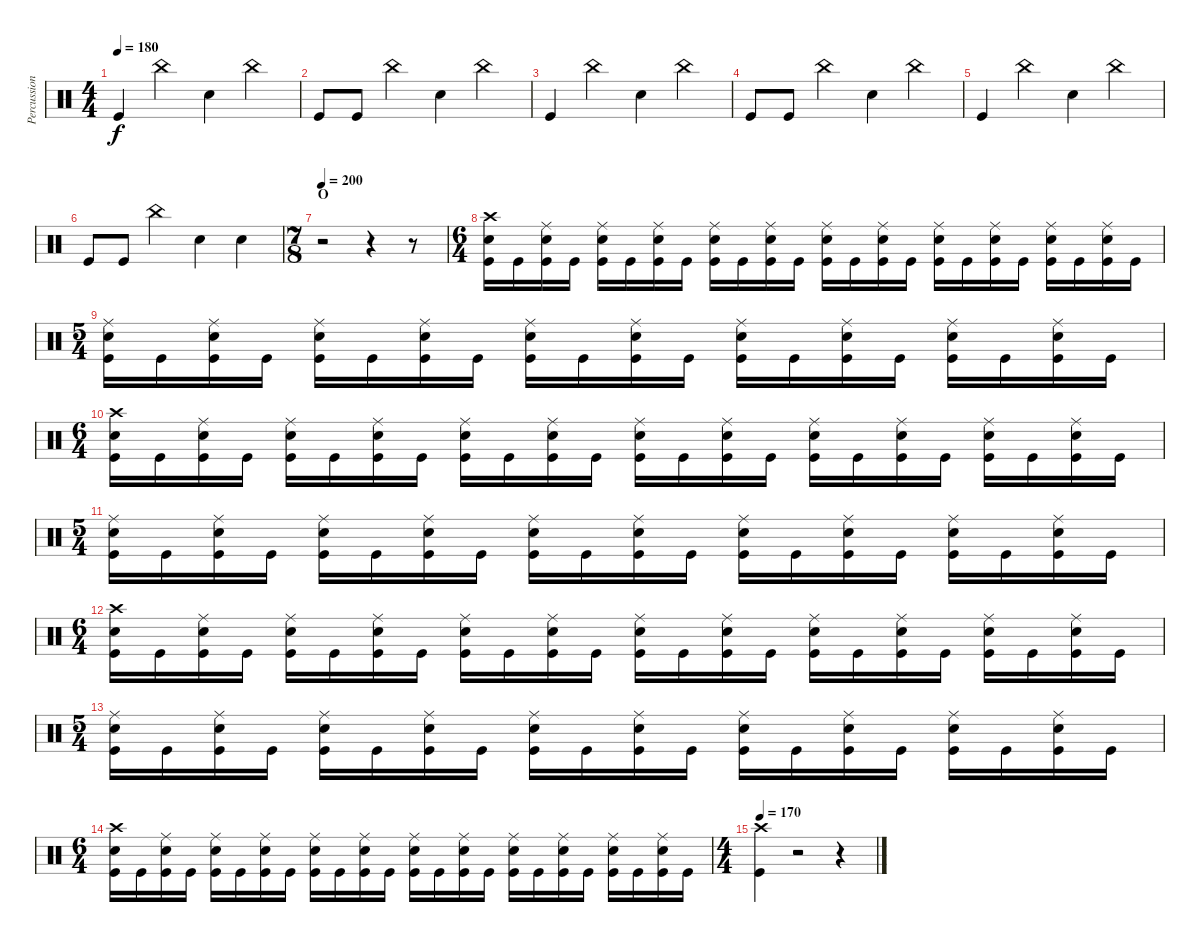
\track ("Percussion" "Percussion") {instrument percussion}
\staff {score}
\articulation defaults
\ts (4 4)
\tempo 180
\clef neutral
\ks c "Kick (hit)".4{dy f} "China (hit)".4 "Electric Snare (hit)".4 "China (hit)".4
|
"Kick (hit)".8 "Kick (hit)".8 "China (hit)".4 "Electric Snare (hit)".4 "China (hit)".4 |
"Kick (hit)".4 "China (hit)".4 "Electric Snare (hit)".4 "China (hit)".4 |
"Kick (hit)".8 "Kick (hit)".8 "China (hit)".4 "Electric Snare (hit)".4 "China (hit)".4 |
"Kick (hit)".4 "China (hit)".4 "Electric Snare (hit)".4 "China (hit)".4 |
"Kick (hit)".8 "Kick (hit)".8 "China (hit)".4 "Electric Snare (hit)".4 "Electric Snare (hit)".4 |
\ts (7 8)
\section ("" "O")
\tempo 200
r.2 r.4 r.8 |
\ts (6 4)
("Crash high (hit)" "Electric Snare (hit)" "Kick (hit)").16 "Kick (hit)".16 ("Ride (middle)" "Electric Snare (hit)" "Kick (hit)").16 "Kick (hit)".16 ("Ride (middle)" "Electric Snare (hit)" "Kick (hit)").16 "Kick (hit)".16 ("Ride (middle)" "Electric Snare (hit)" "Kick (hit)").16 "Kick (hit)".16 ("Ride (middle)" "Electric Snare (hit)" "Kick (hit)").16 "Kick (hit)".16 ("Ride (middle)" "Electric Snare (hit)" "Kick (hit)").16 "Kick (hit)".16 ("Ride (middle)" "Electric Snare (hit)" "Kick (hit)").16 "Kick (hit)".16 ("Ride (middle)" "Electric Snare (hit)" "Kick (hit)").16 "Kick (hit)".16 ("Ride (middle)" "Electric Snare (hit)" "Kick (hit)").16 "Kick (hit)".16 ("Ride (middle)" "Electric Snare (hit)" "Kick (hit)").16 "Kick (hit)".16 ("Ride (middle)" "Electric Snare (hit)" "Kick (hit)").16 "Kick (hit)".16 ("Ride (middle)" "Electric Snare (hit)" "Kick (hit)").16 "Kick (hit)".16 |
\ts (5 4)
("Ride (middle)" "Electric Snare (hit)" "Kick (hit)").16 "Kick (hit)".16 ("Ride (middle)" "Electric Snare (hit)" "Kick (hit)").16 "Kick (hit)".16 ("Ride (middle)" "Electric Snare (hit)" "Kick (hit)").16 "Kick (hit)".16 ("Ride (middle)" "Electric Snare (hit)" "Kick (hit)").16 "Kick (hit)".16 ("Ride (middle)" "Electric Snare (hit)" "Kick (hit)").16 "Kick (hit)".16 ("Ride (middle)" "Electric Snare (hit)" "Kick (hit)").16 "Kick (hit)".16 ("Ride (middle)" "Electric Snare (hit)" "Kick (hit)").16 "Kick (hit)".16 ("Ride (middle)" "Electric Snare (hit)" "Kick (hit)").16 "Kick (hit)".16 ("Ride (middle)" "Electric Snare (hit)" "Kick (hit)").16 "Kick (hit)".16 ("Ride (middle)" "Electric Snare (hit)" "Kick (hit)").16 "Kick (hit)".16 |
\ts (6 4)
("Crash high (hit)" "Electric Snare (hit)" "Kick (hit)").16 "Kick (hit)".16 ("Ride (middle)" "Electric Snare (hit)" "Kick (hit)").16 "Kick (hit)".16 ("Ride (middle)" "Electric Snare (hit)" "Kick (hit)").16 "Kick (hit)".16 ("Ride (middle)" "Electric Snare (hit)" "Kick (hit)").16 "Kick (hit)".16 ("Ride (middle)" "Electric Snare (hit)" "Kick (hit)").16 "Kick (hit)".16 ("Ride (middle)" "Electric Snare (hit)" "Kick (hit)").16 "Kick (hit)".16 ("Ride (middle)" "Electric Snare (hit)" "Kick (hit)").16 "Kick (hit)".16 ("Ride (middle)" "Electric Snare (hit)" "Kick (hit)").16 "Kick (hit)".16 ("Ride (middle)" "Electric Snare (hit)" "Kick (hit)").16 "Kick (hit)".16 ("Ride (middle)" "Electric Snare (hit)" "Kick (hit)").16 "Kick (hit)".16 ("Ride (middle)" "Electric Snare (hit)" "Kick (hit)").16 "Kick (hit)".16 ("Ride (middle)" "Electric Snare (hit)" "Kick (hit)").16 "Kick (hit)".16 |
\ts (5 4)
("Ride (middle)" "Electric Snare (hit)" "Kick (hit)").16 "Kick (hit)".16 ("Ride (middle)" "Electric Snare (hit)" "Kick (hit)").16 "Kick (hit)".16 ("Ride (middle)" "Electric Snare (hit)" "Kick (hit)").16 "Kick (hit)".16 ("Ride (middle)" "Electric Snare (hit)" "Kick (hit)").16 "Kick (hit)".16 ("Ride (middle)" "Electric Snare (hit)" "Kick (hit)").16 "Kick (hit)".16 ("Ride (middle)" "Electric Snare (hit)" "Kick (hit)").16 "Kick (hit)".16 ("Ride (middle)" "Electric Snare (hit)" "Kick (hit)").16 "Kick (hit)".16 ("Ride (middle)" "Electric Snare (hit)" "Kick (hit)").16 "Kick (hit)".16 ("Ride (middle)" "Electric Snare (hit)" "Kick (hit)").16 "Kick (hit)".16 ("Ride (middle)" "Electric Snare (hit)" "Kick (hit)").16 "Kick (hit)".16 |
\ts (6 4)
("Crash high (hit)" "Electric Snare (hit)" "Kick (hit)").16 "Kick (hit)".16 ("Ride (middle)" "Electric Snare (hit)" "Kick (hit)").16 "Kick (hit)".16 ("Ride (middle)" "Electric Snare (hit)" "Kick (hit)").16 "Kick (hit)".16 ("Ride (middle)" "Electric Snare (hit)" "Kick (hit)").16 "Kick (hit)".16 ("Ride (middle)" "Electric Snare (hit)" "Kick (hit)").16 "Kick (hit)".16 ("Ride (middle)" "Electric Snare (hit)" "Kick (hit)").16 "Kick (hit)".16 ("Ride (middle)" "Electric Snare (hit)" "Kick (hit)").16 "Kick (hit)".16 ("Ride (middle)" "Electric Snare (hit)" "Kick (hit)").16 "Kick (hit)".16 ("Ride (middle)" "Electric Snare (hit)" "Kick (hit)").16 "Kick (hit)".16 ("Ride (middle)" "Electric Snare (hit)" "Kick (hit)").16 "Kick (hit)".16 ("Ride (middle)" "Electric Snare (hit)" "Kick (hit)").16 "Kick (hit)".16 ("Ride (middle)" "Electric Snare (hit)" "Kick (hit)").16 "Kick (hit)".16 |
\ts (5 4)
("Ride (middle)" "Electric Snare (hit)" "Kick (hit)").16 "Kick (hit)".16 ("Ride (middle)" "Electric Snare (hit)" "Kick (hit)").16 "Kick (hit)".16 ("Ride (middle)" "Electric Snare (hit)" "Kick (hit)").16 "Kick (hit)".16 ("Ride (middle)" "Electric Snare (hit)" "Kick (hit)").16 "Kick (hit)".16 ("Ride (middle)" "Electric Snare (hit)" "Kick (hit)").16 "Kick (hit)".16 ("Ride (middle)" "Electric Snare (hit)" "Kick (hit)").16 "Kick (hit)".16 ("Ride (middle)" "Electric Snare (hit)" "Kick (hit)").16 "Kick (hit)".16 ("Ride (middle)" "Electric Snare (hit)" "Kick (hit)").16 "Kick (hit)".16 ("Ride (middle)" "Electric Snare (hit)" "Kick (hit)").16 "Kick (hit)".16 ("Ride (middle)" "Electric Snare (hit)" "Kick (hit)").16 "Kick (hit)".16 |
\ts (6 4)
("Crash high (hit)" "Electric Snare (hit)" "Kick (hit)").16 "Kick (hit)".16 ("Ride (middle)" "Electric Snare (hit)" "Kick (hit)").16 "Kick (hit)".16 ("Ride (middle)" "Electric Snare (hit)" "Kick (hit)").16 "Kick (hit)".16 ("Ride (middle)" "Electric Snare (hit)" "Kick (hit)").16 "Kick (hit)".16 ("Ride (middle)" "Electric Snare (hit)" "Kick (hit)").16 "Kick (hit)".16 ("Ride (middle)" "Electric Snare (hit)" "Kick (hit)").16 "Kick (hit)".16 ("Ride (middle)" "Electric Snare (hit)" "Kick (hit)").16 "Kick (hit)".16 ("Ride (middle)" "Electric Snare (hit)" "Kick (hit)").16 "Kick (hit)".16 ("Ride (middle)" "Electric Snare (hit)" "Kick (hit)").16 "Kick (hit)".16 ("Ride (middle)" "Electric Snare (hit)" "Kick (hit)").16 "Kick (hit)".16 ("Ride (middle)" "Electric Snare (hit)" "Kick (hit)").16 "Kick (hit)".16 ("Ride (middle)" "Electric Snare (hit)" "Kick (hit)").16 "Kick (hit)".16 |
\ts (4 4)
\tempo 170
("Crash high (hit)" "Kick (hit)").4 r.2 r.4
